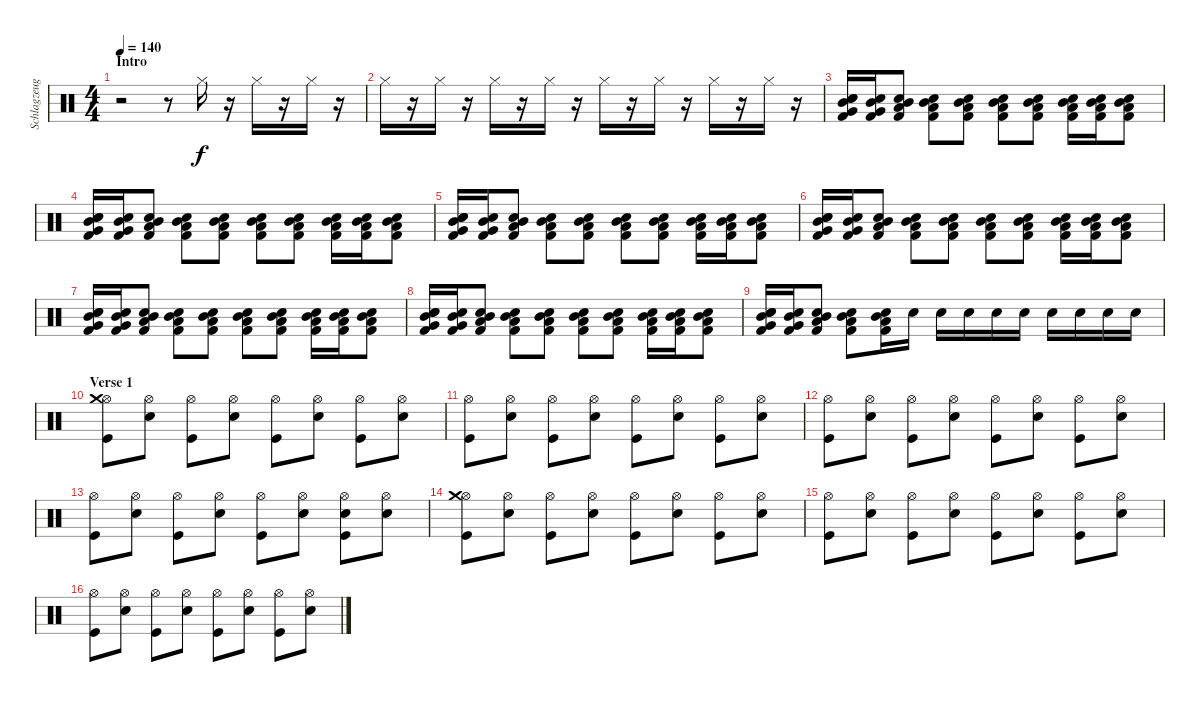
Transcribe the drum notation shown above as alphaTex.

\track ("Schlagzeug - Bela B." "Schlagzeug") {instrument percussion}
\staff {score}
\articulation defaults
\ts (4 4)
\section ("" "Intro")
\tempo 140
\clef neutral
\ks c
r.2{dy f} r.8 "Hi-Hat (closed)".16 r.16 "Hi-Hat (closed)".16 r.16 "Hi-Hat (closed)".16 r.16 |
"Hi-Hat (closed)".16 r.16 "Hi-Hat (closed)".16 r.16 "Hi-Hat (closed)".16 r.16 "Hi-Hat (closed)".16 r.16 "Hi-Hat (closed)".16 r.16 "Hi-Hat (closed)".16 r.16 "Hi-Hat (closed)".16 r.16 "Hi-Hat (closed)".16 r.16 |
("Electric Snare (hit)" "Very Low Tom (hit)" "Mid Tom (hit)" "Snare (hit) 2" "Kick (hit) 2").16 ("Electric Snare (hit)" "Very Low Tom (hit)" "Mid Tom (hit)" "Kick (hit) 2").16 ("Electric Snare (hit)" "Low Tom (hit)" "Mid Tom (hit)" "Kick (hit) 2").8 ("Electric Snare (hit)" "Low Tom (hit)" "Mid Tom (hit)" "Kick (hit) 2").8 ("Electric Snare (hit)" "Low Tom (hit)" "Mid Tom (hit)" "Kick (hit) 2").8 ("Electric Snare (hit)" "Low Tom (hit)" "Mid Tom (hit)" "Kick (hit) 2").8 ("Electric Snare (hit)" "Low Tom (hit)" "Mid Tom (hit)" "Kick (hit) 2").8 ("Electric Snare (hit)" "Low Tom (hit)" "Mid Tom (hit)" "Kick (hit) 2").16 ("Electric Snare (hit)" "Low Tom (hit)" "Mid Tom (hit)" "Kick (hit) 2").16 ("Electric Snare (hit)" "Low Tom (hit)" "Mid Tom (hit)" "Kick (hit) 2").8 |
("Electric Snare (hit)" "Very Low Tom (hit)" "Mid Tom (hit)" "Snare (hit) 2" "Kick (hit) 2").16 ("Electric Snare (hit)" "Very Low Tom (hit)" "Mid Tom (hit)" "Kick (hit) 2").16 ("Electric Snare (hit)" "Low Tom (hit)" "Mid Tom (hit)" "Kick (hit) 2").8 ("Electric Snare (hit)" "Low Tom (hit)" "Mid Tom (hit)" "Kick (hit) 2").8 ("Electric Snare (hit)" "Low Tom (hit)" "Mid Tom (hit)" "Kick (hit) 2").8 ("Electric Snare (hit)" "Low Tom (hit)" "Mid Tom (hit)" "Kick (hit) 2").8 ("Electric Snare (hit)" "Low Tom (hit)" "Mid Tom (hit)" "Kick (hit) 2").8 ("Electric Snare (hit)" "Low Tom (hit)" "Mid Tom (hit)" "Kick (hit) 2").16 ("Electric Snare (hit)" "Low Tom (hit)" "Mid Tom (hit)" "Kick (hit) 2").16 ("Electric Snare (hit)" "Low Tom (hit)" "Mid Tom (hit)" "Kick (hit) 2").8 |
("Electric Snare (hit)" "Very Low Tom (hit)" "Mid Tom (hit)" "Snare (hit) 2" "Kick (hit) 2").16 ("Electric Snare (hit)" "Very Low Tom (hit)" "Mid Tom (hit)" "Kick (hit) 2").16 ("Electric Snare (hit)" "Low Tom (hit)" "Mid Tom (hit)" "Kick (hit) 2").8 ("Electric Snare (hit)" "Low Tom (hit)" "Mid Tom (hit)" "Kick (hit) 2").8 ("Electric Snare (hit)" "Low Tom (hit)" "Mid Tom (hit)" "Kick (hit) 2").8 ("Electric Snare (hit)" "Low Tom (hit)" "Mid Tom (hit)" "Kick (hit) 2").8 ("Electric Snare (hit)" "Low Tom (hit)" "Mid Tom (hit)" "Kick (hit) 2").8 ("Electric Snare (hit)" "Low Tom (hit)" "Mid Tom (hit)" "Kick (hit) 2").16 ("Electric Snare (hit)" "Low Tom (hit)" "Mid Tom (hit)" "Kick (hit) 2").16 ("Electric Snare (hit)" "Low Tom (hit)" "Mid Tom (hit)" "Kick (hit) 2").8 |
("Electric Snare (hit)" "Very Low Tom (hit)" "Mid Tom (hit)" "Snare (hit) 2" "Kick (hit) 2").16 ("Electric Snare (hit)" "Very Low Tom (hit)" "Mid Tom (hit)" "Kick (hit) 2").16 ("Electric Snare (hit)" "Low Tom (hit)" "Mid Tom (hit)" "Kick (hit) 2").8 ("Electric Snare (hit)" "Low Tom (hit)" "Mid Tom (hit)" "Kick (hit) 2").8 ("Electric Snare (hit)" "Low Tom (hit)" "Mid Tom (hit)" "Kick (hit) 2").8 ("Electric Snare (hit)" "Low Tom (hit)" "Mid Tom (hit)" "Kick (hit) 2").8 ("Electric Snare (hit)" "Low Tom (hit)" "Mid Tom (hit)" "Kick (hit) 2").8 ("Electric Snare (hit)" "Low Tom (hit)" "Mid Tom (hit)" "Kick (hit) 2").16 ("Electric Snare (hit)" "Low Tom (hit)" "Mid Tom (hit)" "Kick (hit) 2").16 ("Electric Snare (hit)" "Low Tom (hit)" "Mid Tom (hit)" "Kick (hit) 2").8 |
("Electric Snare (hit)" "Very Low Tom (hit)" "Mid Tom (hit)" "Snare (hit) 2" "Kick (hit) 2").16 ("Electric Snare (hit)" "Very Low Tom (hit)" "Mid Tom (hit)" "Kick (hit) 2").16 ("Electric Snare (hit)" "Low Tom (hit)" "Mid Tom (hit)" "Kick (hit) 2").8 ("Electric Snare (hit)" "Low Tom (hit)" "Mid Tom (hit)" "Kick (hit) 2").8 ("Electric Snare (hit)" "Low Tom (hit)" "Mid Tom (hit)" "Kick (hit) 2").8 ("Electric Snare (hit)" "Low Tom (hit)" "Mid Tom (hit)" "Kick (hit) 2").8 ("Electric Snare (hit)" "Low Tom (hit)" "Mid Tom (hit)" "Kick (hit) 2").8 ("Electric Snare (hit)" "Low Tom (hit)" "Mid Tom (hit)" "Kick (hit) 2").16 ("Electric Snare (hit)" "Low Tom (hit)" "Mid Tom (hit)" "Kick (hit) 2").16 ("Electric Snare (hit)" "Low Tom (hit)" "Mid Tom (hit)" "Kick (hit) 2").8 |
("Electric Snare (hit)" "Very Low Tom (hit)" "Mid Tom (hit)" "Snare (hit) 2" "Kick (hit) 2").16 ("Electric Snare (hit)" "Very Low Tom (hit)" "Mid Tom (hit)" "Kick (hit) 2").16 ("Electric Snare (hit)" "Low Tom (hit)" "Mid Tom (hit)" "Kick (hit) 2").8 ("Electric Snare (hit)" "Low Tom (hit)" "Mid Tom (hit)" "Kick (hit) 2").8 ("Electric Snare (hit)" "Low Tom (hit)" "Mid Tom (hit)" "Kick (hit) 2").8 ("Electric Snare (hit)" "Low Tom (hit)" "Mid Tom (hit)" "Kick (hit) 2").8 ("Electric Snare (hit)" "Low Tom (hit)" "Mid Tom (hit)" "Kick (hit) 2").8 ("Electric Snare (hit)" "Low Tom (hit)" "Mid Tom (hit)" "Kick (hit) 2").16 ("Electric Snare (hit)" "Low Tom (hit)" "Mid Tom (hit)" "Kick (hit) 2").16 ("Electric Snare (hit)" "Low Tom (hit)" "Mid Tom (hit)" "Kick (hit) 2").8 |
("Electric Snare (hit)" "Very Low Tom (hit)" "Mid Tom (hit)" "Snare (hit) 2" "Kick (hit) 2").16 ("Electric Snare (hit)" "Very Low Tom (hit)" "Mid Tom (hit)" "Kick (hit) 2").16 ("Electric Snare (hit)" "Low Tom (hit)" "Mid Tom (hit)" "Kick (hit) 2").8 ("Electric Snare (hit)" "Low Tom (hit)" "Mid Tom (hit)" "Kick (hit) 2").8 ("Electric Snare (hit)" "Low Tom (hit)" "Mid Tom (hit)" "Kick (hit) 2").16 "Electric Snare (hit)".16 "Electric Snare (hit)".16 "Electric Snare (hit)".16 "Electric Snare (hit)".16 "Electric Snare (hit)".16 "Electric Snare (hit)".16 "Electric Snare (hit)".16 "Electric Snare (hit)".16 "Electric Snare (hit)".16 |
\section ("" "Verse 1")
("Kick (hit)" "Hi-Hat (open)" "Crash medium (hit)").8 ("Hi-Hat (open)" "Electric Snare (hit)").8 ("Hi-Hat (open)" "Kick (hit)").8 ("Hi-Hat (open)" "Electric Snare (hit)").8 ("Kick (hit)" "Hi-Hat (open)").8 ("Hi-Hat (open)" "Electric Snare (hit)").8 ("Hi-Hat (open)" "Kick (hit)").8 ("Hi-Hat (open)" "Electric Snare (hit)").8 |
("Kick (hit)" "Hi-Hat (open)").8 ("Hi-Hat (open)" "Electric Snare (hit)").8 ("Hi-Hat (open)" "Kick (hit)").8 ("Hi-Hat (open)" "Electric Snare (hit)").8 ("Kick (hit)" "Hi-Hat (open)").8 ("Hi-Hat (open)" "Electric Snare (hit)").8 ("Hi-Hat (open)" "Kick (hit)").8 ("Hi-Hat (open)" "Electric Snare (hit)").8 |
("Kick (hit)" "Hi-Hat (open)").8 ("Hi-Hat (open)" "Electric Snare (hit)").8 ("Hi-Hat (open)" "Kick (hit)").8 ("Hi-Hat (open)" "Electric Snare (hit)").8 ("Kick (hit)" "Hi-Hat (open)").8 ("Hi-Hat (open)" "Electric Snare (hit)").8 ("Hi-Hat (open)" "Kick (hit)").8 ("Hi-Hat (open)" "Electric Snare (hit)").8 |
("Kick (hit)" "Hi-Hat (open)").8 ("Hi-Hat (open)" "Electric Snare (hit)").8 ("Hi-Hat (open)" "Kick (hit)").8 ("Hi-Hat (open)" "Electric Snare (hit)").8 ("Kick (hit)" "Hi-Hat (open)").8 ("Hi-Hat (open)" "Electric Snare (hit)").8 ("Hi-Hat (open)" "Kick (hit)" "Electric Snare (hit)").8 ("Hi-Hat (open)" "Electric Snare (hit)").8 |
("Kick (hit)" "Hi-Hat (open)" "Crash medium (hit)").8 ("Hi-Hat (open)" "Electric Snare (hit)").8 ("Hi-Hat (open)" "Kick (hit)").8 ("Hi-Hat (open)" "Electric Snare (hit)").8 ("Kick (hit)" "Hi-Hat (open)").8 ("Hi-Hat (open)" "Electric Snare (hit)").8 ("Hi-Hat (open)" "Kick (hit)").8 ("Hi-Hat (open)" "Electric Snare (hit)").8 |
("Kick (hit)" "Hi-Hat (open)").8 ("Hi-Hat (open)" "Electric Snare (hit)").8 ("Hi-Hat (open)" "Kick (hit)").8 ("Hi-Hat (open)" "Electric Snare (hit)").8 ("Kick (hit)" "Hi-Hat (open)").8 ("Hi-Hat (open)" "Electric Snare (hit)").8 ("Hi-Hat (open)" "Kick (hit)").8 ("Hi-Hat (open)" "Electric Snare (hit)").8 |
("Kick (hit)" "Hi-Hat (open)").8 ("Hi-Hat (open)" "Electric Snare (hit)").8 ("Hi-Hat (open)" "Kick (hit)").8 ("Hi-Hat (open)" "Electric Snare (hit)").8 ("Kick (hit)" "Hi-Hat (open)").8 ("Hi-Hat (open)" "Electric Snare (hit)").8 ("Hi-Hat (open)" "Kick (hit)").8 ("Hi-Hat (open)" "Electric Snare (hit)").8
